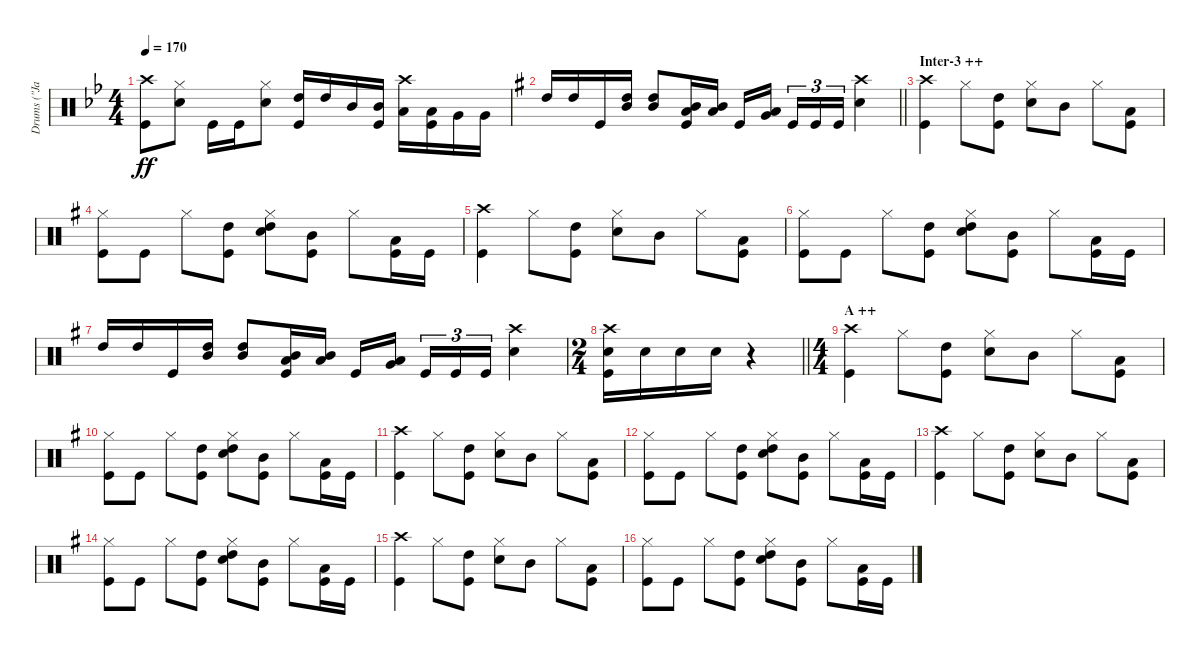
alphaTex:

\track ("Drums (\"Jane\")" "Drums (\"Ja") {instrument percussion}
\staff {score}
\articulation defaults
\ts (4 4)
\tempo 170
\clef neutral
\ks bb
("Crash high (hit)" "Kick (hit)").8{dy ff} ("Hi-Hat (closed)" "Snare (hit) 2").8 "Kick (hit)".16 "Kick (hit)".16 ("Hi-Hat (closed)" "Snare (hit) 2").8 ("High Tom (hit)" "Kick (hit)").16 "High Tom (hit)".16 "Mid Tom (hit)".16 ("Mid Tom (hit)" "Kick (hit)").16 ("Crash high (hit)" "Low Tom (hit)").16 ("Low Tom (hit)" "Kick (hit)").16 "Very Low Tom (hit)".16 "Very Low Tom (hit)".16 |
\barLineRight lightlight
\ks g "High Tom (hit)".16 "High Tom (hit)".16 "Kick (hit)".16
("High Tom (hit)" "Mid Tom (hit)").16 ("High Tom (hit)" "Mid Tom (hit)").8 ("Low Tom (hit)" "Mid Tom (hit)" "Kick (hit)").16 ("Low Tom (hit)" "Mid Tom (hit)").16 "Kick (hit)".16 ("Low Tom (hit)" "Very Low Tom (hit)").16{beam splitsecondary} "Kick (hit)".16{tu (3 2)} "Kick (hit)".16{tu (3 2)} "Kick (hit)".16{tu (3 2)} ("Crash high (hit)" "Snare (hit) 2").4 |
\section ("" "Inter-3 ++")
("Crash high (hit)" "Kick (hit)").4 "Hi-Hat (closed)".8 ("High Tom (hit)" "Kick (hit)").8 ("Hi-Hat (closed)" "Snare (hit) 2").8 "Mid Tom (hit)".8 "Hi-Hat (closed)".8 ("Low Tom (hit)" "Kick (hit)").8 |
("Hi-Hat (closed)" "Kick (hit)").8 "Kick (hit)".8 "Hi-Hat (closed)".8 ("High Tom (hit)" "Kick (hit)").8 ("Hi-Hat (closed)" "Snare (hit) 2" "High Tom (hit)").8 ("Mid Tom (hit)" "Kick (hit)").8 "Hi-Hat (closed)".8 ("Low Tom (hit)" "Kick (hit)").16 "Kick (hit)".16 |
("Crash high (hit)" "Kick (hit)").4 "Hi-Hat (closed)".8 ("High Tom (hit)" "Kick (hit)").8 ("Hi-Hat (closed)" "Snare (hit) 2").8 "Mid Tom (hit)".8 "Hi-Hat (closed)".8 ("Low Tom (hit)" "Kick (hit)").8 |
("Hi-Hat (closed)" "Kick (hit)").8 "Kick (hit)".8 "Hi-Hat (closed)".8 ("High Tom (hit)" "Kick (hit)").8 ("Hi-Hat (closed)" "Snare (hit) 2" "High Tom (hit)").8 ("Mid Tom (hit)" "Kick (hit)").8 "Hi-Hat (closed)".8 ("Low Tom (hit)" "Kick (hit)").16 "Kick (hit)".16 |
"High Tom (hit)".16 "High Tom (hit)".16 "Kick (hit)".16 ("High Tom (hit)" "Mid Tom (hit)").16 ("High Tom (hit)" "Mid Tom (hit)").8 ("Low Tom (hit)" "Mid Tom (hit)" "Kick (hit)").16 ("Low Tom (hit)" "Mid Tom (hit)").16 "Kick (hit)".16 ("Low Tom (hit)" "Very Low Tom (hit)").16{beam splitsecondary} "Kick (hit)".16{tu (3 2)} "Kick (hit)".16{tu (3 2)} "Kick (hit)".16{tu (3 2)} ("Crash high (hit)" "Snare (hit) 2").4 |
\ts (2 4)
\barLineRight lightlight
("Crash high (hit)" "Snare (hit) 2" "Kick (hit)").16 "Snare (hit) 2".16 "Snare (hit) 2".16 "Snare (hit) 2".16 r.4 |
\ts (4 4)
\section ("" "A ++")
("Crash high (hit)" "Kick (hit)").4 "Hi-Hat (closed)".8 ("High Tom (hit)" "Kick (hit)").8 ("Hi-Hat (closed)" "Snare (hit) 2").8 "Mid Tom (hit)".8 "Hi-Hat (closed)".8 ("Low Tom (hit)" "Kick (hit)").8 |
("Hi-Hat (closed)" "Kick (hit)").8 "Kick (hit)".8 "Hi-Hat (closed)".8 ("High Tom (hit)" "Kick (hit)").8 ("Hi-Hat (closed)" "Snare (hit) 2" "High Tom (hit)").8 ("Mid Tom (hit)" "Kick (hit)").8 "Hi-Hat (closed)".8 ("Low Tom (hit)" "Kick (hit)").16 "Kick (hit)".16 |
("Crash high (hit)" "Kick (hit)").4 "Hi-Hat (closed)".8 ("High Tom (hit)" "Kick (hit)").8 ("Hi-Hat (closed)" "Snare (hit) 2").8 "Mid Tom (hit)".8 "Hi-Hat (closed)".8 ("Low Tom (hit)" "Kick (hit)").8 |
("Hi-Hat (closed)" "Kick (hit)").8 "Kick (hit)".8 "Hi-Hat (closed)".8 ("High Tom (hit)" "Kick (hit)").8 ("Hi-Hat (closed)" "Snare (hit) 2" "High Tom (hit)").8 ("Mid Tom (hit)" "Kick (hit)").8 "Hi-Hat (closed)".8 ("Low Tom (hit)" "Kick (hit)").16 "Kick (hit)".16 |
("Crash high (hit)" "Kick (hit)").4 "Hi-Hat (closed)".8 ("High Tom (hit)" "Kick (hit)").8 ("Hi-Hat (closed)" "Snare (hit) 2").8 "Mid Tom (hit)".8 "Hi-Hat (closed)".8 ("Low Tom (hit)" "Kick (hit)").8 |
("Hi-Hat (closed)" "Kick (hit)").8 "Kick (hit)".8 "Hi-Hat (closed)".8 ("High Tom (hit)" "Kick (hit)").8 ("Hi-Hat (closed)" "Snare (hit) 2" "High Tom (hit)").8 ("Mid Tom (hit)" "Kick (hit)").8 "Hi-Hat (closed)".8 ("Low Tom (hit)" "Kick (hit)").16 "Kick (hit)".16 |
("Crash high (hit)" "Kick (hit)").4 "Hi-Hat (closed)".8 ("High Tom (hit)" "Kick (hit)").8 ("Hi-Hat (closed)" "Snare (hit) 2").8 "Mid Tom (hit)".8 "Hi-Hat (closed)".8 ("Low Tom (hit)" "Kick (hit)").8 |
("Hi-Hat (closed)" "Kick (hit)").8 "Kick (hit)".8 "Hi-Hat (closed)".8 ("High Tom (hit)" "Kick (hit)").8 ("Hi-Hat (closed)" "Snare (hit) 2" "High Tom (hit)").8 ("Mid Tom (hit)" "Kick (hit)").8 "Hi-Hat (closed)".8 ("Low Tom (hit)" "Kick (hit)").16 "Kick (hit)".16
